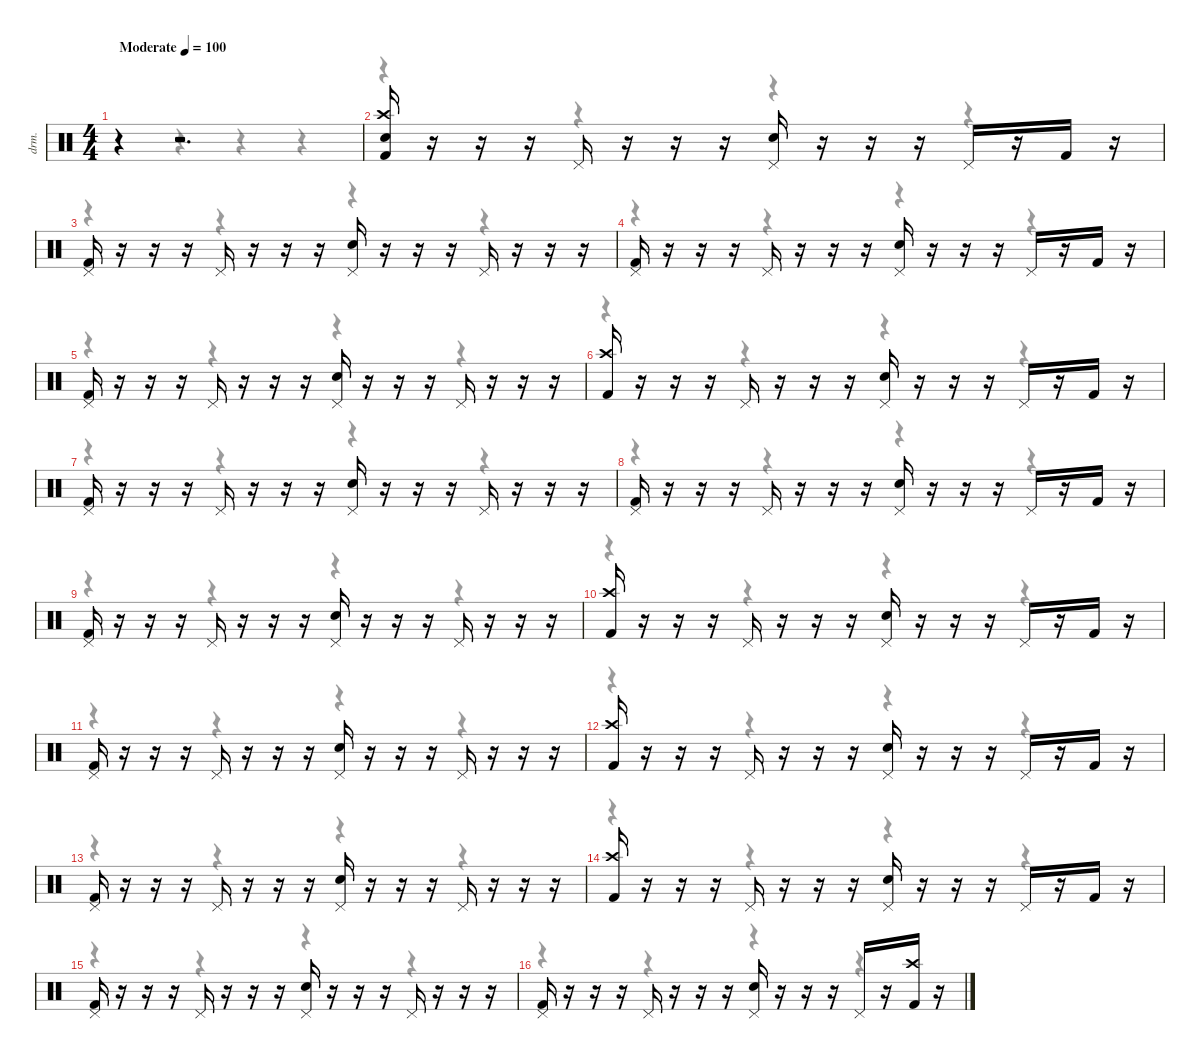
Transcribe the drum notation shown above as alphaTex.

\defaultSystemsLayout 4
\hideDynamics
\bracketExtendMode nobrackets
\otherSystemsTrackNameOrientation horizontal
\track ("Drums" "drm.") {instrument percussion}
\staff {score}
\articulation defaults
\voice
\ts (4 4)
\beaming (8 2 2 2 2)
\tempo (100 "Moderate")
\clef neutral
\ks c
r.4{dy ff} r.2{d} |
("Kick (hit) 2" "Snare (hit) 2" "Crash high (hit)").16 r.16 r.16 r.16 "Pedal Hi-Hat (hit)".16 r.16 r.16 r.16 ("Snare (hit) 2" "Pedal Hi-Hat (hit)").16 r.16 r.16 r.16 "Pedal Hi-Hat (hit)".16 r.16 "Kick (hit) 2".16 r.16 |
("Kick (hit) 2" "Pedal Hi-Hat (hit)").16 r.16 r.16 r.16 "Pedal Hi-Hat (hit)".16 r.16 r.16 r.16 ("Snare (hit) 2" "Pedal Hi-Hat (hit)").16 r.16 r.16 r.16 "Pedal Hi-Hat (hit)".16 r.16 r.16 r.16 |
("Kick (hit) 2" "Pedal Hi-Hat (hit)").16 r.16 r.16 r.16 "Pedal Hi-Hat (hit)".16 r.16 r.16 r.16 ("Snare (hit) 2" "Pedal Hi-Hat (hit)").16 r.16 r.16 r.16 "Pedal Hi-Hat (hit)".16 r.16 "Kick (hit) 2".16 r.16 |
("Kick (hit) 2" "Pedal Hi-Hat (hit)").16 r.16 r.16 r.16 "Pedal Hi-Hat (hit)".16 r.16 r.16 r.16 ("Snare (hit) 2" "Pedal Hi-Hat (hit)").16 r.16 r.16 r.16 "Pedal Hi-Hat (hit)".16 r.16 r.16 r.16 |
("Kick (hit) 2" "Crash high (hit)").16 r.16 r.16 r.16 "Pedal Hi-Hat (hit)".16 r.16 r.16 r.16 ("Snare (hit) 2" "Pedal Hi-Hat (hit)").16 r.16 r.16 r.16 "Pedal Hi-Hat (hit)".16 r.16 "Kick (hit) 2".16 r.16 |
("Kick (hit) 2" "Pedal Hi-Hat (hit)").16 r.16 r.16 r.16 "Pedal Hi-Hat (hit)".16 r.16 r.16 r.16 ("Snare (hit) 2" "Pedal Hi-Hat (hit)").16 r.16 r.16 r.16 "Pedal Hi-Hat (hit)".16 r.16 r.16 r.16 |
("Kick (hit) 2" "Pedal Hi-Hat (hit)").16 r.16 r.16 r.16 "Pedal Hi-Hat (hit)".16 r.16 r.16 r.16 ("Snare (hit) 2" "Pedal Hi-Hat (hit)").16 r.16 r.16 r.16 "Pedal Hi-Hat (hit)".16 r.16 "Kick (hit) 2".16 r.16 |
("Kick (hit) 2" "Pedal Hi-Hat (hit)").16 r.16 r.16 r.16 "Pedal Hi-Hat (hit)".16 r.16 r.16 r.16 ("Snare (hit) 2" "Pedal Hi-Hat (hit)").16 r.16 r.16 r.16 "Pedal Hi-Hat (hit)".16 r.16 r.16 r.16 |
("Kick (hit) 2" "Crash high (hit)").16 r.16 r.16 r.16 "Pedal Hi-Hat (hit)".16 r.16 r.16 r.16 ("Snare (hit) 2" "Pedal Hi-Hat (hit)").16 r.16 r.16 r.16 "Pedal Hi-Hat (hit)".16 r.16 "Kick (hit) 2".16 r.16 |
("Kick (hit) 2" "Pedal Hi-Hat (hit)").16 r.16 r.16 r.16 "Pedal Hi-Hat (hit)".16 r.16 r.16 r.16 ("Snare (hit) 2" "Pedal Hi-Hat (hit)").16 r.16 r.16 r.16 "Pedal Hi-Hat (hit)".16 r.16 r.16 r.16 |
("Kick (hit) 2" "Crash high (hit)").16 r.16 r.16 r.16 "Pedal Hi-Hat (hit)".16 r.16 r.16 r.16 ("Snare (hit) 2" "Pedal Hi-Hat (hit)").16 r.16 r.16 r.16 "Pedal Hi-Hat (hit)".16 r.16 "Kick (hit) 2".16 r.16 |
("Kick (hit) 2" "Pedal Hi-Hat (hit)").16 r.16 r.16 r.16 "Pedal Hi-Hat (hit)".16 r.16 r.16 r.16 ("Snare (hit) 2" "Pedal Hi-Hat (hit)").16 r.16 r.16 r.16 "Pedal Hi-Hat (hit)".16 r.16 r.16 r.16 |
("Kick (hit) 2" "Crash high (hit)").16 r.16 r.16 r.16 "Pedal Hi-Hat (hit)".16 r.16 r.16 r.16 ("Snare (hit) 2" "Pedal Hi-Hat (hit)").16 r.16 r.16 r.16 "Pedal Hi-Hat (hit)".16 r.16 "Kick (hit) 2".16 r.16 |
("Kick (hit) 2" "Pedal Hi-Hat (hit)").16 r.16 r.16 r.16 "Pedal Hi-Hat (hit)".16 r.16 r.16 r.16 ("Snare (hit) 2" "Pedal Hi-Hat (hit)").16 r.16 r.16 r.16 "Pedal Hi-Hat (hit)".16 r.16 r.16 r.16 |
("Kick (hit) 2" "Pedal Hi-Hat (hit)").16 r.16 r.16 r.16 "Pedal Hi-Hat (hit)".16 r.16 r.16 r.16 ("Snare (hit) 2" "Pedal Hi-Hat (hit)").16 r.16 r.16 r.16 "Pedal Hi-Hat (hit)".16 r.16 ("Kick (hit) 2" "Crash high (hit)").16 r.16
\voice
\clef neutral
\ottava regular
\simile none
\ks c
r.4{dy mf} r.4 r.4 r.4 |
r.4 r.4 r.4 r.4 |
r.4 r.4 r.4 r.4 |
r.4 r.4 r.4 r.4 |
r.4 r.4 r.4 r.4 |
r.4 r.4 r.4 r.4 |
r.4 r.4 r.4 r.4 |
r.4 r.4 r.4 r.4 |
r.4 r.4 r.4 r.4 |
r.4 r.4 r.4 r.4 |
r.4 r.4 r.4 r.4 |
r.4 r.4 r.4 r.4 |
r.4 r.4 r.4 r.4 |
r.4 r.4 r.4 r.4 |
r.4 r.4 r.4 r.4 |
r.4 r.4 r.4 r.4
